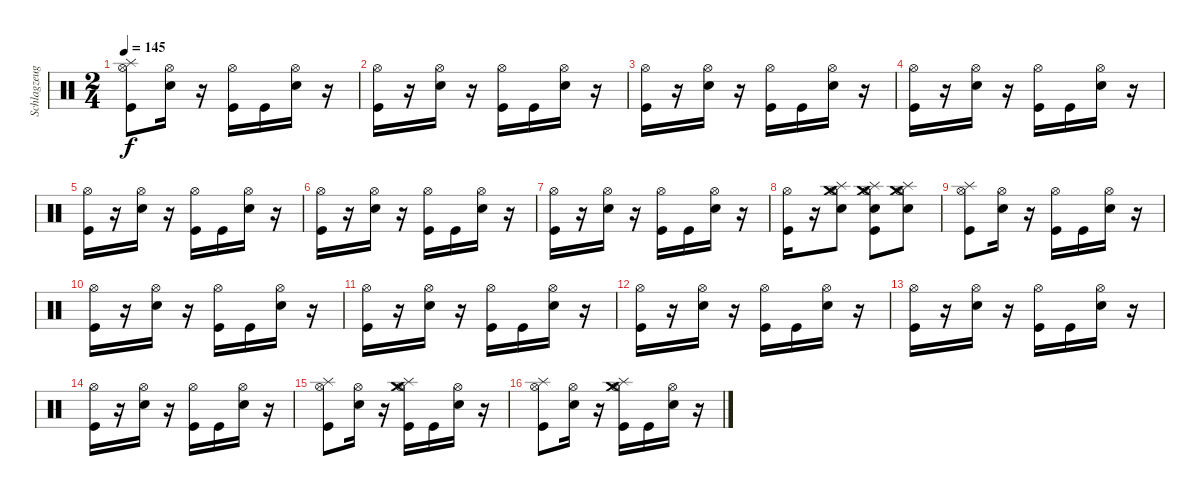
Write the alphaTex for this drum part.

\track ("Schlagzeug - Bela B." "Schlagzeug") {instrument percussion}
\staff {score}
\articulation defaults
\ts (2 4)
\tempo 145
\clef neutral
\ks c
("Kick (hit)" "Hi-Hat (open)" "Splash (hit)").8{dy f} ("Electric Snare (hit)" "Hi-Hat (open)").16 r.16 ("Kick (hit)" "Hi-Hat (open)").16 "Kick (hit)".16 ("Electric Snare (hit)" "Hi-Hat (open)").16 r.16 |
("Kick (hit)" "Hi-Hat (open)").16 r.16 ("Electric Snare (hit)" "Hi-Hat (open)").16 r.16 ("Kick (hit)" "Hi-Hat (open)").16 "Kick (hit)".16 ("Electric Snare (hit)" "Hi-Hat (open)").16 r.16 |
("Kick (hit)" "Hi-Hat (open)").16 r.16 ("Electric Snare (hit)" "Hi-Hat (open)").16 r.16 ("Kick (hit)" "Hi-Hat (open)").16 "Kick (hit)".16 ("Electric Snare (hit)" "Hi-Hat (open)").16 r.16 |
("Kick (hit)" "Hi-Hat (open)").16 r.16 ("Electric Snare (hit)" "Hi-Hat (open)").16 r.16 ("Kick (hit)" "Hi-Hat (open)").16 "Kick (hit)".16 ("Electric Snare (hit)" "Hi-Hat (open)").16 r.16 |
("Kick (hit)" "Hi-Hat (open)").16 r.16 ("Electric Snare (hit)" "Hi-Hat (open)").16 r.16 ("Kick (hit)" "Hi-Hat (open)").16 "Kick (hit)".16 ("Electric Snare (hit)" "Hi-Hat (open)").16 r.16 |
("Kick (hit)" "Hi-Hat (open)").16 r.16 ("Electric Snare (hit)" "Hi-Hat (open)").16 r.16 ("Kick (hit)" "Hi-Hat (open)").16 "Kick (hit)".16 ("Electric Snare (hit)" "Hi-Hat (open)").16 r.16 |
("Kick (hit)" "Hi-Hat (open)").16 r.16 ("Electric Snare (hit)" "Hi-Hat (open)").16 r.16 ("Kick (hit)" "Hi-Hat (open)").16 "Kick (hit)".16 ("Electric Snare (hit)" "Hi-Hat (open)").16 r.16 |
("Kick (hit)" "Hi-Hat (open)").16 r.16 ("Electric Snare (hit)" "Hi-Hat (open)" "Splash (hit)" "Crash medium (hit)").8 ("Kick (hit)" "Hi-Hat (open)" "Electric Snare (hit)" "Splash (hit)" "Crash medium (hit)").8 ("Electric Snare (hit)" "Hi-Hat (open)" "Splash (hit)" "Crash medium (hit)").8 |
("Kick (hit)" "Hi-Hat (open)" "Splash (hit)").8 ("Electric Snare (hit)" "Hi-Hat (open)").16 r.16 ("Kick (hit)" "Hi-Hat (open)").16 "Kick (hit)".16 ("Electric Snare (hit)" "Hi-Hat (open)").16 r.16 |
("Kick (hit)" "Hi-Hat (open)").16 r.16 ("Electric Snare (hit)" "Hi-Hat (open)").16 r.16 ("Kick (hit)" "Hi-Hat (open)").16 "Kick (hit)".16 ("Electric Snare (hit)" "Hi-Hat (open)").16 r.16 |
("Kick (hit)" "Hi-Hat (open)").16 r.16 ("Electric Snare (hit)" "Hi-Hat (open)").16 r.16 ("Kick (hit)" "Hi-Hat (open)").16 "Kick (hit)".16 ("Electric Snare (hit)" "Hi-Hat (open)").16 r.16 |
("Kick (hit)" "Hi-Hat (open)").16 r.16 ("Electric Snare (hit)" "Hi-Hat (open)").16 r.16 ("Kick (hit)" "Hi-Hat (open)").16 "Kick (hit)".16 ("Electric Snare (hit)" "Hi-Hat (open)").16 r.16 |
("Kick (hit)" "Hi-Hat (open)").16 r.16 ("Electric Snare (hit)" "Hi-Hat (open)").16 r.16 ("Kick (hit)" "Hi-Hat (open)").16 "Kick (hit)".16 ("Electric Snare (hit)" "Hi-Hat (open)").16 r.16 |
("Kick (hit)" "Hi-Hat (open)").16 r.16 ("Electric Snare (hit)" "Hi-Hat (open)").16 r.16 ("Kick (hit)" "Hi-Hat (open)").16 "Kick (hit)".16 ("Electric Snare (hit)" "Hi-Hat (open)").16 r.16 |
("Kick (hit)" "Hi-Hat (open)" "Splash (hit)").8 ("Electric Snare (hit)" "Hi-Hat (open)").16 r.16 ("Kick (hit)" "Hi-Hat (open)" "Splash (hit)" "Crash medium (hit)").16 "Kick (hit)".16 ("Electric Snare (hit)" "Hi-Hat (open)").16 r.16 |
("Kick (hit)" "Hi-Hat (open)" "Splash (hit)").8 ("Electric Snare (hit)" "Hi-Hat (open)").16 r.16 ("Kick (hit)" "Hi-Hat (open)" "Splash (hit)" "Crash medium (hit)").16 "Kick (hit)".16 ("Electric Snare (hit)" "Hi-Hat (open)").16 r.16
